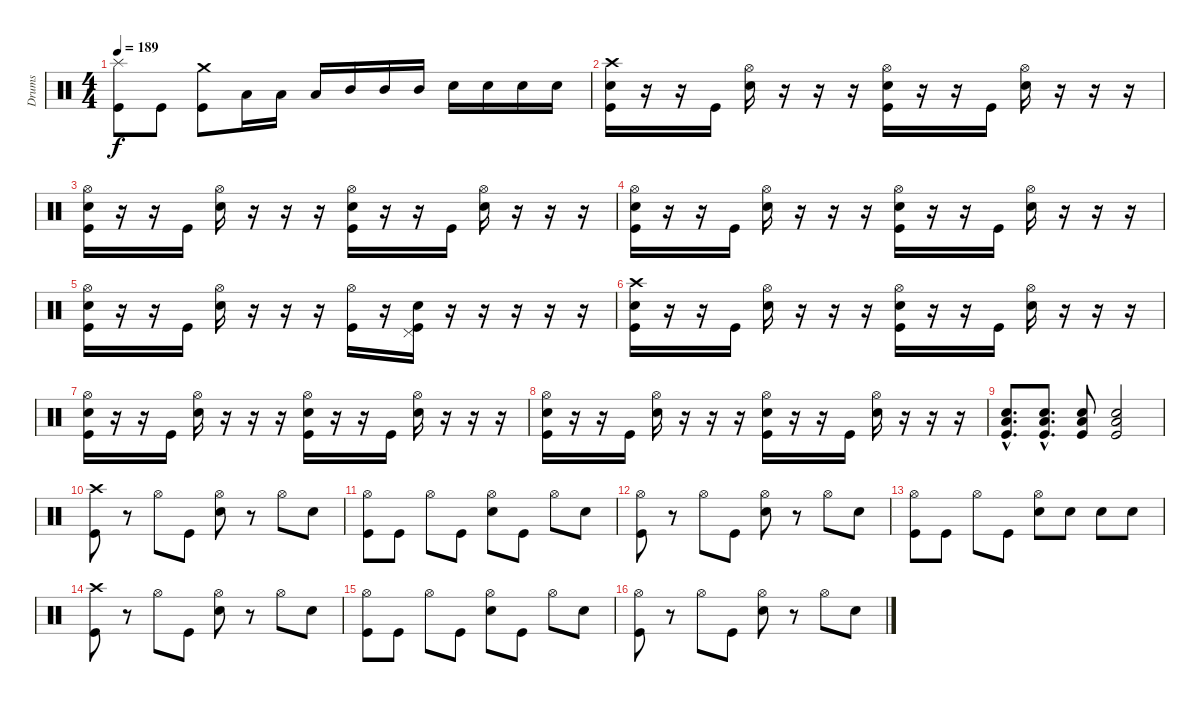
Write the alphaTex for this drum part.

\track ("Drums" "Drums") {instrument percussion}
\staff {score}
\articulation defaults
\ts (4 4)
\tempo 189
\clef neutral
\ks c
("Splash (hit)" "Kick (hit)").8{dy f} "Kick (hit)".8 ("Crash medium (hit)" "Kick (hit)").8 "Low Tom (hit)".16 "Low Tom (hit)".16 "Low Tom (hit)".16 "Mid Tom (hit)".16 "Mid Tom (hit)".16 "Mid Tom (hit)".16 "Electric Snare (hit)".16 "Electric Snare (hit)".16 "Electric Snare (hit)".16 "Electric Snare (hit)".16 |
("Crash high (hit)" "Electric Snare (hit)" "Kick (hit)").16 r.16 r.16 "Kick (hit)".16 ("Hi-Hat (open)" "Electric Snare (hit)").16 r.16 r.16 r.16 ("Hi-Hat (open)" "Electric Snare (hit)" "Kick (hit)").16 r.16 r.16 "Kick (hit)".16 ("Hi-Hat (open)" "Electric Snare (hit)").16 r.16 r.16 r.16 |
("Hi-Hat (open)" "Electric Snare (hit)" "Kick (hit)").16 r.16 r.16 "Kick (hit)".16 ("Hi-Hat (open)" "Electric Snare (hit)").16 r.16 r.16 r.16 ("Hi-Hat (open)" "Electric Snare (hit)" "Kick (hit)").16 r.16 r.16 "Kick (hit)".16 ("Hi-Hat (open)" "Electric Snare (hit)").16 r.16 r.16 r.16 |
("Hi-Hat (open)" "Electric Snare (hit)" "Kick (hit)").16 r.16 r.16 "Kick (hit)".16 ("Hi-Hat (open)" "Electric Snare (hit)").16 r.16 r.16 r.16 ("Hi-Hat (open)" "Electric Snare (hit)" "Kick (hit)").16 r.16 r.16 "Kick (hit)".16 ("Hi-Hat (open)" "Electric Snare (hit)").16 r.16 r.16 r.16 |
("Hi-Hat (open)" "Electric Snare (hit)" "Kick (hit)").16 r.16 r.16 "Kick (hit)".16 ("Hi-Hat (open)" "Electric Snare (hit)").16 r.16 r.16 r.16 ("Hi-Hat (open)" "Kick (hit)").16 r.16 ("Pedal Hi-Hat (hit)" "Electric Snare (hit)" "Kick (hit)").16 r.16 r.16 r.16 r.16 r.16 |
("Crash high (hit)" "Electric Snare (hit)" "Kick (hit)").16 r.16 r.16 "Kick (hit)".16 ("Hi-Hat (open)" "Electric Snare (hit)").16 r.16 r.16 r.16 ("Hi-Hat (open)" "Electric Snare (hit)" "Kick (hit)").16 r.16 r.16 "Kick (hit)".16 ("Hi-Hat (open)" "Electric Snare (hit)").16 r.16 r.16 r.16 |
("Hi-Hat (open)" "Electric Snare (hit)" "Kick (hit)").16 r.16 r.16 "Kick (hit)".16 ("Hi-Hat (open)" "Electric Snare (hit)").16 r.16 r.16 r.16 ("Hi-Hat (open)" "Electric Snare (hit)" "Kick (hit)").16 r.16 r.16 "Kick (hit)".16 ("Hi-Hat (open)" "Electric Snare (hit)").16 r.16 r.16 r.16 |
("Hi-Hat (open)" "Electric Snare (hit)" "Kick (hit)").16 r.16 r.16 "Kick (hit)".16 ("Hi-Hat (open)" "Electric Snare (hit)").16 r.16 r.16 r.16 ("Hi-Hat (open)" "Electric Snare (hit)" "Kick (hit)").16 r.16 r.16 "Kick (hit)".16 ("Hi-Hat (open)" "Electric Snare (hit)").16 r.16 r.16 r.16 |
("Low Floor Tom (hit)"{hac} "Electric Snare (hit)"{hac} "Kick (hit)"{hac}).8{d} ("Low Floor Tom (hit)"{hac} "Electric Snare (hit)"{hac} "Kick (hit)"{hac}).8{d} ("Low Floor Tom (hit)" "Electric Snare (hit)" "Kick (hit)").8 ("Low Floor Tom (hit)" "Electric Snare (hit)" "Kick (hit)").2 |
("Crash high (hit)" "Kick (hit)").8 r.8 "Hi-Hat (open)".8 "Kick (hit)".8 ("Hi-Hat (open)" "Electric Snare (hit)").8 r.8 "Hi-Hat (open)".8 "Electric Snare (hit)".8 |
("Hi-Hat (open)" "Kick (hit)").8 "Kick (hit)".8 "Hi-Hat (open)".8 "Kick (hit)".8 ("Hi-Hat (open)" "Electric Snare (hit)").8 "Kick (hit)".8 "Hi-Hat (open)".8 "Electric Snare (hit)".8 |
("Hi-Hat (open)" "Kick (hit)").8 r.8 "Hi-Hat (open)".8 "Kick (hit)".8 ("Hi-Hat (open)" "Electric Snare (hit)").8 r.8 "Hi-Hat (open)".8 "Electric Snare (hit)".8 |
("Hi-Hat (open)" "Kick (hit)").8 "Kick (hit)".8 "Hi-Hat (open)".8 "Kick (hit)".8 ("Hi-Hat (open)" "Electric Snare (hit)").8 "Electric Snare (hit)".8 "Electric Snare (hit)".8 "Electric Snare (hit)".8 |
("Crash high (hit)" "Kick (hit)").8 r.8 "Hi-Hat (open)".8 "Kick (hit)".8 ("Hi-Hat (open)" "Electric Snare (hit)").8 r.8 "Hi-Hat (open)".8 "Electric Snare (hit)".8 |
("Hi-Hat (open)" "Kick (hit)").8 "Kick (hit)".8 "Hi-Hat (open)".8 "Kick (hit)".8 ("Hi-Hat (open)" "Electric Snare (hit)").8 "Kick (hit)".8 "Hi-Hat (open)".8 "Electric Snare (hit)".8 |
("Hi-Hat (open)" "Kick (hit)").8 r.8 "Hi-Hat (open)".8 "Kick (hit)".8 ("Hi-Hat (open)" "Electric Snare (hit)").8 r.8 "Hi-Hat (open)".8 "Electric Snare (hit)".8
